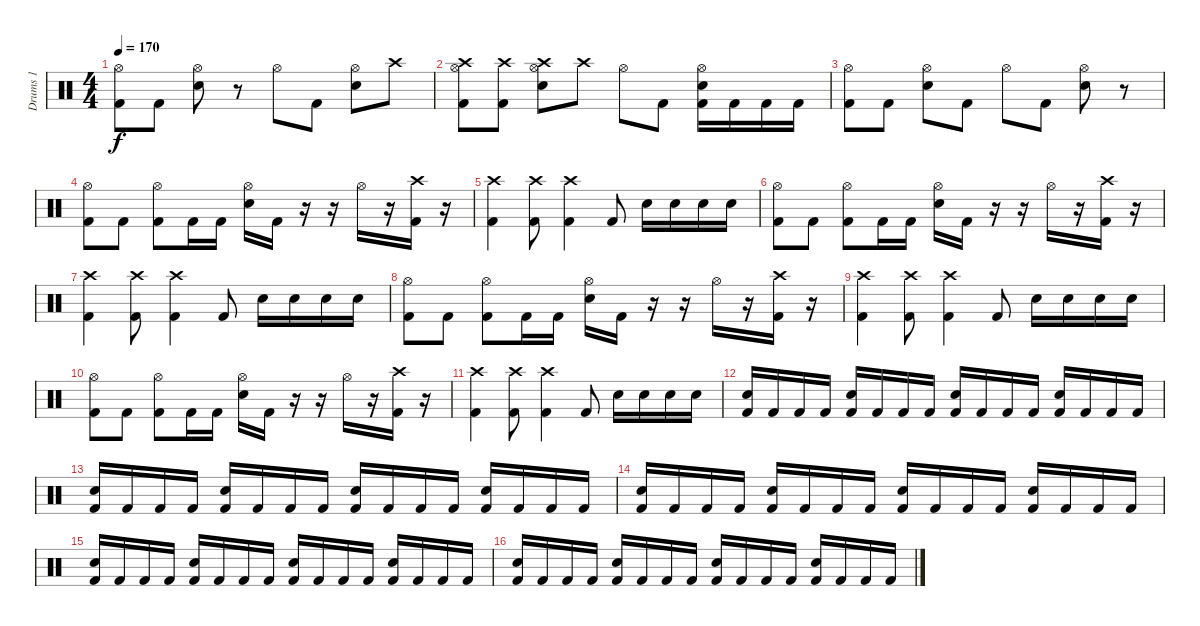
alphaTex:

\track ("Drums 1" "Drums 1") {instrument percussion}
\staff {score}
\articulation defaults
\ts (4 4)
\tempo 170
\clef neutral
\ks c
("Hi-Hat (open)" "Kick (hit) 2").8{dy f} "Kick (hit) 2".8 ("Hi-Hat (open)" "Electric Snare (hit)").8 r.8 "Hi-Hat (open)".8 "Kick (hit) 2".8 ("Hi-Hat (open)" "Electric Snare (hit)").8 "Crash high (hit)".8 |
("Crash high (hit)" "Hi-Hat (open)" "Kick (hit) 2").8 ("Crash high (hit)" "Kick (hit) 2").8 ("Crash high (hit)" "Hi-Hat (open)" "Electric Snare (hit)").8 "Crash high (hit)".8 "Hi-Hat (open)".8 "Kick (hit) 2".8 ("Hi-Hat (open)" "Electric Snare (hit)" "Kick (hit) 2").16 "Kick (hit) 2".16 "Kick (hit) 2".16 "Kick (hit) 2".16 |
("Hi-Hat (open)" "Kick (hit) 2").8 "Kick (hit) 2".8 ("Hi-Hat (open)" "Electric Snare (hit)").8 "Kick (hit) 2".8 "Hi-Hat (open)".8 "Kick (hit) 2".8 ("Hi-Hat (open)" "Electric Snare (hit)").8 r.8 |
("Hi-Hat (open)" "Kick (hit) 2").8 "Kick (hit) 2".8 ("Hi-Hat (open)" "Kick (hit) 2").8 "Kick (hit) 2".16 "Kick (hit) 2".16 ("Hi-Hat (open)" "Electric Snare (hit)").16 "Kick (hit) 2".16 r.16 r.16 "Hi-Hat (open)".16 r.16 ("Crash high (hit)" "Kick (hit) 2").16 r.16 |
("Crash high (hit)" "Kick (hit) 2").4 ("Crash high (hit)" "Kick (hit) 2").8 ("Crash high (hit)" "Kick (hit) 2").4 "Kick (hit) 2".8 "Electric Snare (hit)".16 "Electric Snare (hit)".16 "Electric Snare (hit)".16 "Electric Snare (hit)".16 |
("Hi-Hat (open)" "Kick (hit) 2").8 "Kick (hit) 2".8 ("Hi-Hat (open)" "Kick (hit) 2").8 "Kick (hit) 2".16 "Kick (hit) 2".16 ("Hi-Hat (open)" "Electric Snare (hit)").16 "Kick (hit) 2".16 r.16 r.16 "Hi-Hat (open)".16 r.16 ("Crash high (hit)" "Kick (hit) 2").16 r.16 |
("Crash high (hit)" "Kick (hit) 2").4 ("Crash high (hit)" "Kick (hit) 2").8 ("Crash high (hit)" "Kick (hit) 2").4 "Kick (hit) 2".8 "Electric Snare (hit)".16 "Electric Snare (hit)".16 "Electric Snare (hit)".16 "Electric Snare (hit)".16 |
("Hi-Hat (open)" "Kick (hit) 2").8 "Kick (hit) 2".8 ("Hi-Hat (open)" "Kick (hit) 2").8 "Kick (hit) 2".16 "Kick (hit) 2".16 ("Hi-Hat (open)" "Electric Snare (hit)").16 "Kick (hit) 2".16 r.16 r.16 "Hi-Hat (open)".16 r.16 ("Crash high (hit)" "Kick (hit) 2").16 r.16 |
("Crash high (hit)" "Kick (hit) 2").4 ("Crash high (hit)" "Kick (hit) 2").8 ("Crash high (hit)" "Kick (hit) 2").4 "Kick (hit) 2".8 "Electric Snare (hit)".16 "Electric Snare (hit)".16 "Electric Snare (hit)".16 "Electric Snare (hit)".16 |
("Hi-Hat (open)" "Kick (hit) 2").8 "Kick (hit) 2".8 ("Hi-Hat (open)" "Kick (hit) 2").8 "Kick (hit) 2".16 "Kick (hit) 2".16 ("Hi-Hat (open)" "Electric Snare (hit)").16 "Kick (hit) 2".16 r.16 r.16 "Hi-Hat (open)".16 r.16 ("Crash high (hit)" "Kick (hit) 2").16 r.16 |
("Crash high (hit)" "Kick (hit) 2").4 ("Crash high (hit)" "Kick (hit) 2").8 ("Crash high (hit)" "Kick (hit) 2").4 "Kick (hit) 2".8 "Electric Snare (hit)".16 "Electric Snare (hit)".16 "Electric Snare (hit)".16 "Electric Snare (hit)".16 |
("Snare (hit) 2" "Kick (hit) 2").16 "Kick (hit) 2".16 "Kick (hit) 2".16 "Kick (hit) 2".16 ("Snare (hit) 2" "Kick (hit) 2").16 "Kick (hit) 2".16 "Kick (hit) 2".16 "Kick (hit) 2".16 ("Snare (hit) 2" "Kick (hit) 2").16 "Kick (hit) 2".16 "Kick (hit) 2".16 "Kick (hit) 2".16 ("Snare (hit) 2" "Kick (hit) 2").16 "Kick (hit) 2".16 "Kick (hit) 2".16 "Kick (hit) 2".16 |
("Snare (hit) 2" "Kick (hit) 2").16 "Kick (hit) 2".16 "Kick (hit) 2".16 "Kick (hit) 2".16 ("Snare (hit) 2" "Kick (hit) 2").16 "Kick (hit) 2".16 "Kick (hit) 2".16 "Kick (hit) 2".16 ("Snare (hit) 2" "Kick (hit) 2").16 "Kick (hit) 2".16 "Kick (hit) 2".16 "Kick (hit) 2".16 ("Snare (hit) 2" "Kick (hit) 2").16 "Kick (hit) 2".16 "Kick (hit) 2".16 "Kick (hit) 2".16 |
("Snare (hit) 2" "Kick (hit) 2").16 "Kick (hit) 2".16 "Kick (hit) 2".16 "Kick (hit) 2".16 ("Snare (hit) 2" "Kick (hit) 2").16 "Kick (hit) 2".16 "Kick (hit) 2".16 "Kick (hit) 2".16 ("Snare (hit) 2" "Kick (hit) 2").16 "Kick (hit) 2".16 "Kick (hit) 2".16 "Kick (hit) 2".16 ("Snare (hit) 2" "Kick (hit) 2").16 "Kick (hit) 2".16 "Kick (hit) 2".16 "Kick (hit) 2".16 |
("Snare (hit) 2" "Kick (hit) 2").16 "Kick (hit) 2".16 "Kick (hit) 2".16 "Kick (hit) 2".16 ("Snare (hit) 2" "Kick (hit) 2").16 "Kick (hit) 2".16 "Kick (hit) 2".16 "Kick (hit) 2".16 ("Snare (hit) 2" "Kick (hit) 2").16 "Kick (hit) 2".16 "Kick (hit) 2".16 "Kick (hit) 2".16 ("Snare (hit) 2" "Kick (hit) 2").16 "Kick (hit) 2".16 "Kick (hit) 2".16 "Kick (hit) 2".16 |
("Snare (hit) 2" "Kick (hit) 2").16 "Kick (hit) 2".16 "Kick (hit) 2".16 "Kick (hit) 2".16 ("Snare (hit) 2" "Kick (hit) 2").16 "Kick (hit) 2".16 "Kick (hit) 2".16 "Kick (hit) 2".16 ("Snare (hit) 2" "Kick (hit) 2").16 "Kick (hit) 2".16 "Kick (hit) 2".16 "Kick (hit) 2".16 ("Snare (hit) 2" "Kick (hit) 2").16 "Kick (hit) 2".16 "Kick (hit) 2".16 "Kick (hit) 2".16
